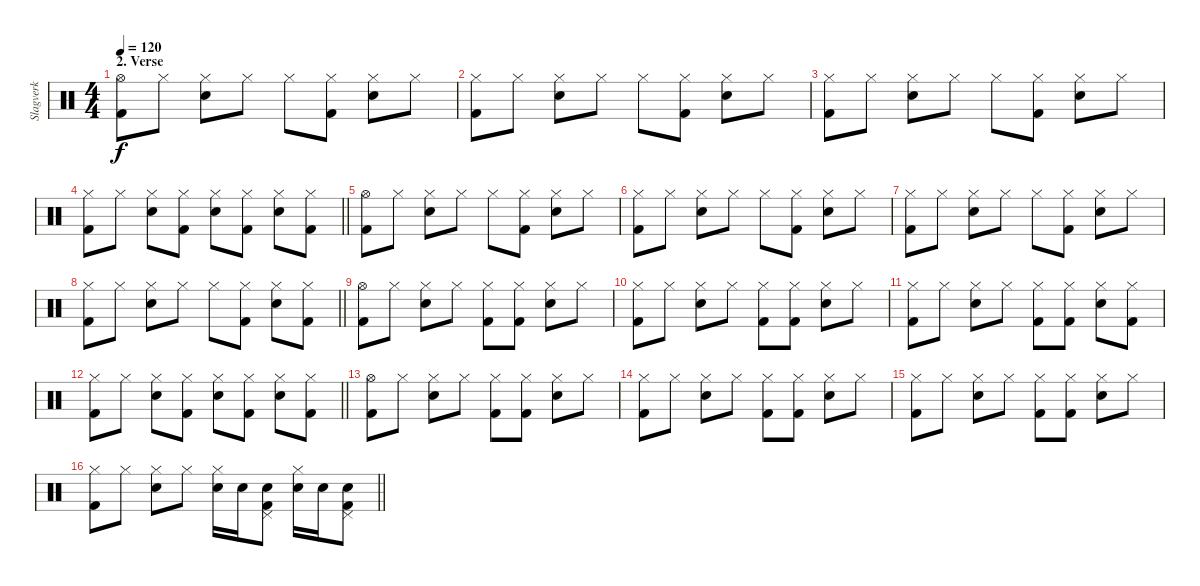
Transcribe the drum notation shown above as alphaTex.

\track ("Slagverk" "Slagverk") {instrument percussion}
\staff {score}
\articulation defaults
\ts (4 4)
\section ("" "2. Verse")
\tempo 120
\clef neutral
\ks c
("Hi-Hat (open)" "Kick (hit) 2").8{dy f} "Hi-Hat (closed)".8 ("Hi-Hat (closed)" "Snare (hit) 2").8 "Hi-Hat (closed)".8 "Hi-Hat (closed)".8 ("Hi-Hat (closed)" "Kick (hit) 2").8 ("Hi-Hat (closed)" "Snare (hit) 2").8 "Hi-Hat (closed)".8 |
("Hi-Hat (closed)" "Kick (hit) 2").8 "Hi-Hat (closed)".8 ("Hi-Hat (closed)" "Snare (hit) 2").8 "Hi-Hat (closed)".8 "Hi-Hat (closed)".8 ("Hi-Hat (closed)" "Kick (hit) 2").8 ("Hi-Hat (closed)" "Snare (hit) 2").8 "Hi-Hat (closed)".8 |
("Hi-Hat (closed)" "Kick (hit) 2").8 "Hi-Hat (closed)".8 ("Hi-Hat (closed)" "Snare (hit) 2").8 "Hi-Hat (closed)".8 "Hi-Hat (closed)".8 ("Hi-Hat (closed)" "Kick (hit) 2").8 ("Hi-Hat (closed)" "Snare (hit) 2").8 "Hi-Hat (closed)".8 |
\barLineRight lightlight
("Hi-Hat (closed)" "Kick (hit) 2").8 "Hi-Hat (closed)".8 ("Hi-Hat (closed)" "Snare (hit) 2").8 ("Hi-Hat (closed)" "Kick (hit) 2").8 ("Hi-Hat (closed)" "Snare (hit) 2").8 ("Hi-Hat (closed)" "Kick (hit) 2").8 ("Hi-Hat (closed)" "Snare (hit) 2").8 ("Hi-Hat (closed)" "Kick (hit) 2").8 |
("Hi-Hat (open)" "Kick (hit) 2").8 "Hi-Hat (closed)".8 ("Hi-Hat (closed)" "Snare (hit) 2").8 "Hi-Hat (closed)".8 "Hi-Hat (closed)".8 ("Hi-Hat (closed)" "Kick (hit) 2").8 ("Hi-Hat (closed)" "Snare (hit) 2").8 "Hi-Hat (closed)".8 |
("Hi-Hat (closed)" "Kick (hit) 2").8 "Hi-Hat (closed)".8 ("Hi-Hat (closed)" "Snare (hit) 2").8 "Hi-Hat (closed)".8 "Hi-Hat (closed)".8 ("Hi-Hat (closed)" "Kick (hit) 2").8 ("Hi-Hat (closed)" "Snare (hit) 2").8 "Hi-Hat (closed)".8 |
("Hi-Hat (closed)" "Kick (hit) 2").8 "Hi-Hat (closed)".8 ("Hi-Hat (closed)" "Snare (hit) 2").8 "Hi-Hat (closed)".8 "Hi-Hat (closed)".8 ("Hi-Hat (closed)" "Kick (hit) 2").8 ("Hi-Hat (closed)" "Snare (hit) 2").8 "Hi-Hat (closed)".8 |
\barLineRight lightlight
("Hi-Hat (closed)" "Kick (hit) 2").8 "Hi-Hat (closed)".8 ("Hi-Hat (closed)" "Snare (hit) 2").8 "Hi-Hat (closed)".8 "Hi-Hat (closed)".8 ("Hi-Hat (closed)" "Kick (hit) 2").8 ("Hi-Hat (closed)" "Snare (hit) 2").8 ("Hi-Hat (closed)" "Kick (hit) 2").8 |
("Hi-Hat (open)" "Kick (hit) 2").8 "Hi-Hat (closed)".8 ("Hi-Hat (closed)" "Snare (hit) 2").8 "Hi-Hat (closed)".8 ("Hi-Hat (closed)" "Kick (hit) 2").8 ("Hi-Hat (closed)" "Kick (hit) 2").8 ("Hi-Hat (closed)" "Snare (hit) 2").8 "Hi-Hat (closed)".8 |
("Hi-Hat (closed)" "Kick (hit) 2").8 "Hi-Hat (closed)".8 ("Hi-Hat (closed)" "Snare (hit) 2").8 "Hi-Hat (closed)".8 ("Hi-Hat (closed)" "Kick (hit) 2").8 ("Hi-Hat (closed)" "Kick (hit) 2").8 ("Hi-Hat (closed)" "Snare (hit) 2").8 "Hi-Hat (closed)".8 |
("Hi-Hat (closed)" "Kick (hit) 2").8 "Hi-Hat (closed)".8 ("Hi-Hat (closed)" "Snare (hit) 2").8 "Hi-Hat (closed)".8 ("Hi-Hat (closed)" "Kick (hit) 2").8 ("Hi-Hat (closed)" "Kick (hit) 2").8 ("Hi-Hat (closed)" "Snare (hit) 2").8 ("Hi-Hat (closed)" "Kick (hit) 2").8 |
\barLineRight lightlight
("Hi-Hat (closed)" "Kick (hit) 2").8 "Hi-Hat (closed)".8 ("Hi-Hat (closed)" "Snare (hit) 2").8 ("Hi-Hat (closed)" "Kick (hit) 2").8 ("Hi-Hat (closed)" "Snare (hit) 2").8 ("Hi-Hat (closed)" "Kick (hit) 2").8 ("Hi-Hat (closed)" "Snare (hit) 2").8 ("Hi-Hat (closed)" "Kick (hit) 2").8 |
("Hi-Hat (open)" "Kick (hit) 2").8 "Hi-Hat (closed)".8 ("Hi-Hat (closed)" "Snare (hit) 2").8 "Hi-Hat (closed)".8 ("Hi-Hat (closed)" "Kick (hit) 2").8 ("Hi-Hat (closed)" "Kick (hit) 2").8 ("Hi-Hat (closed)" "Snare (hit) 2").8 "Hi-Hat (closed)".8 |
("Hi-Hat (closed)" "Kick (hit) 2").8 "Hi-Hat (closed)".8 ("Hi-Hat (closed)" "Snare (hit) 2").8 "Hi-Hat (closed)".8 ("Hi-Hat (closed)" "Kick (hit) 2").8 ("Hi-Hat (closed)" "Kick (hit) 2").8 ("Hi-Hat (closed)" "Snare (hit) 2").8 "Hi-Hat (closed)".8 |
("Hi-Hat (closed)" "Kick (hit) 2").8 "Hi-Hat (closed)".8 ("Hi-Hat (closed)" "Snare (hit) 2").8 "Hi-Hat (closed)".8 ("Hi-Hat (closed)" "Kick (hit) 2").8 ("Hi-Hat (closed)" "Kick (hit) 2").8 ("Hi-Hat (closed)" "Snare (hit) 2").8 "Hi-Hat (closed)".8 |
\barLineRight lightlight
("Hi-Hat (closed)" "Kick (hit) 2").8 "Hi-Hat (closed)".8 ("Hi-Hat (closed)" "Snare (hit) 2").8 "Hi-Hat (closed)".8 ("Hi-Hat (closed)" "Snare (hit) 2").16 "Snare (hit) 2".16 ("Pedal Hi-Hat (hit)" "Snare (hit) 2" "Kick (hit) 2").8 ("Hi-Hat (closed)" "Snare (hit) 2").16 "Snare (hit) 2".16 ("Pedal Hi-Hat (hit)" "Snare (hit) 2" "Kick (hit) 2").8
